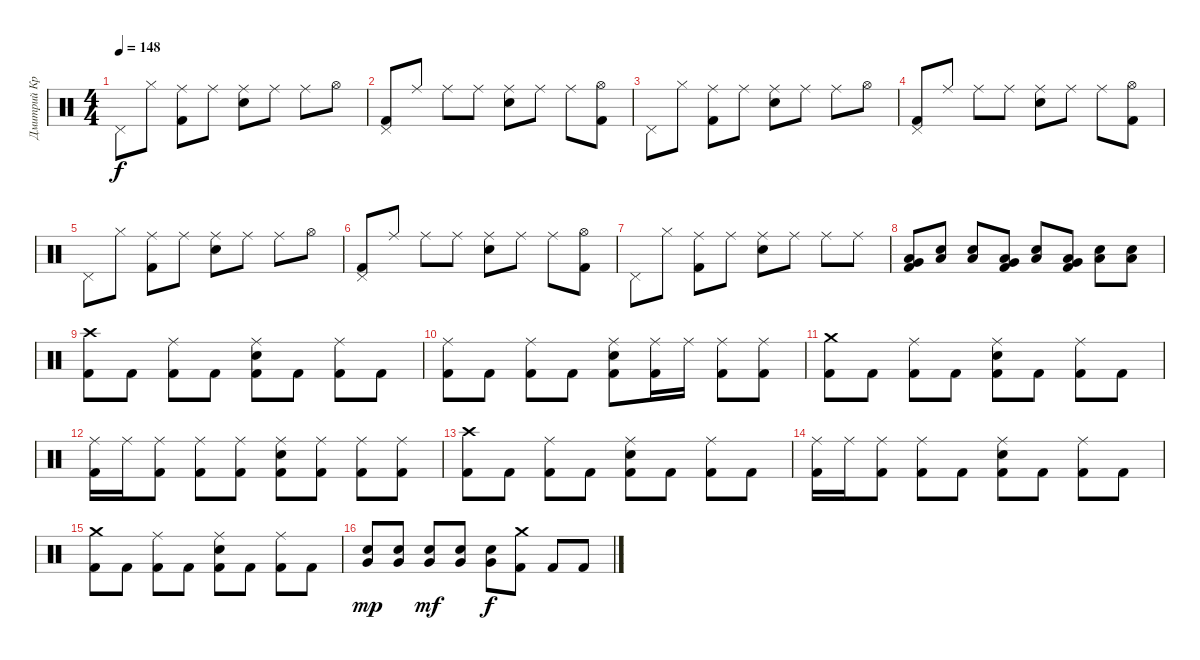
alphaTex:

\track ("Дмитрий Кривенков" "Дмитрий Кр") {instrument percussion}
\staff {score}
\articulation defaults
\ts (4 4)
\tempo 148
\clef neutral
\ks c "Pedal Hi-Hat (hit)".8{dy f} "Hi-Hat (closed)".8
("Ride (middle)" "Kick (hit) 2").8 "Ride (middle)".8 ("Ride (middle)" "Electric Snare (hit)").8 "Ride (middle)".8 "Ride (middle)".8 "Hi-Hat (open)".8 |
("Pedal Hi-Hat (hit)" "Kick (hit) 2").8 "Ride (middle)".8 "Ride (middle)".8 "Ride (middle)".8 ("Ride (middle)" "Electric Snare (hit)").8 "Ride (middle)".8 "Ride (middle)".8 ("Hi-Hat (open)" "Kick (hit) 2").8 |
"Pedal Hi-Hat (hit)".8 "Hi-Hat (closed)".8 ("Ride (middle)" "Kick (hit) 2").8 "Ride (middle)".8 ("Ride (middle)" "Electric Snare (hit)").8 "Ride (middle)".8 "Ride (middle)".8 "Hi-Hat (open)".8 |
("Pedal Hi-Hat (hit)" "Kick (hit) 2").8 "Ride (middle)".8 "Ride (middle)".8 "Ride (middle)".8 ("Ride (middle)" "Electric Snare (hit)").8 "Ride (middle)".8 "Ride (middle)".8 ("Hi-Hat (open)" "Kick (hit) 2").8 |
"Pedal Hi-Hat (hit)".8 "Hi-Hat (closed)".8 ("Ride (middle)" "Kick (hit) 2").8 "Ride (middle)".8 ("Ride (middle)" "Electric Snare (hit)").8 "Ride (middle)".8 "Ride (middle)".8 "Hi-Hat (open)".8 |
("Pedal Hi-Hat (hit)" "Kick (hit) 2").8 "Ride (middle)".8 "Ride (middle)".8 "Ride (middle)".8 ("Ride (middle)" "Electric Snare (hit)").8 "Ride (middle)".8 "Ride (middle)".8 ("Hi-Hat (open)" "Kick (hit) 2").8 |
"Pedal Hi-Hat (hit)".8 "Hi-Hat (closed)".8 ("Ride (middle)" "Kick (hit) 2").8 "Ride (middle)".8 ("Ride (middle)" "Electric Snare (hit)").8 "Ride (middle)".8 "Ride (middle)".8 "Ride (middle)".8 |
("Low Floor Tom (hit)" "Very Low Tom (hit)" "Kick (hit) 2").8 ("Low Floor Tom (hit)" "Electric Snare (hit)").8 ("Low Floor Tom (hit)" "Electric Snare (hit)").8 ("Low Floor Tom (hit)" "Very Low Tom (hit)" "Kick (hit) 2").8 ("Low Floor Tom (hit)" "Electric Snare (hit)").8 ("Low Floor Tom (hit)" "Very Low Tom (hit)" "Kick (hit) 2").8 ("Low Floor Tom (hit)" "Electric Snare (hit)").8 ("Low Floor Tom (hit)" "Electric Snare (hit)").8 |
("Crash high (hit)" "Kick (hit) 2").8 "Kick (hit) 2".8 ("Ride (middle)" "Kick (hit) 2").8 "Kick (hit) 2".8 ("Ride (middle)" "Electric Snare (hit)" "Kick (hit) 2").8 "Kick (hit) 2".8 ("Ride (middle)" "Kick (hit) 2").8 "Kick (hit) 2".8 |
("Ride (middle)" "Kick (hit) 2").8 "Kick (hit) 2".8 ("Ride (middle)" "Kick (hit) 2").8 "Kick (hit) 2".8 ("Ride (middle)" "Electric Snare (hit)" "Kick (hit) 2").8 ("Ride (middle)" "Kick (hit) 2").16 "Ride (middle)".16 ("Ride (middle)" "Kick (hit) 2").8 ("Ride (middle)" "Kick (hit) 2").8 |
("Crash medium (hit)" "Kick (hit) 2").8 "Kick (hit) 2".8 ("Ride (middle)" "Kick (hit) 2").8 "Kick (hit) 2".8 ("Ride (middle)" "Electric Snare (hit)" "Kick (hit) 2").8 "Kick (hit) 2".8 ("Ride (middle)" "Kick (hit) 2").8 "Kick (hit) 2".8 |
("Ride (middle)" "Kick (hit) 2").16 "Ride (middle)".16 ("Ride (middle)" "Kick (hit) 2").8 ("Ride (middle)" "Kick (hit) 2").8 ("Ride (middle)" "Kick (hit) 2").8 ("Ride (middle)" "Electric Snare (hit)" "Kick (hit) 2").8 ("Ride (middle)" "Kick (hit) 2").8 ("Ride (middle)" "Kick (hit) 2").8 ("Ride (middle)" "Kick (hit) 2").8 |
("Crash high (hit)" "Kick (hit) 2").8 "Kick (hit) 2".8 ("Ride (middle)" "Kick (hit) 2").8 "Kick (hit) 2".8 ("Ride (middle)" "Electric Snare (hit)" "Kick (hit) 2").8 "Kick (hit) 2".8 ("Ride (middle)" "Kick (hit) 2").8 "Kick (hit) 2".8 |
("Ride (middle)" "Kick (hit) 2").16 "Ride (middle)".16 ("Ride (middle)" "Kick (hit) 2").8 ("Ride (middle)" "Kick (hit) 2").8 "Kick (hit) 2".8 ("Ride (middle)" "Electric Snare (hit)" "Kick (hit) 2").8 "Kick (hit) 2".8 ("Ride (middle)" "Kick (hit) 2").8 "Kick (hit) 2".8 |
("Crash medium (hit)" "Kick (hit) 2").8 "Kick (hit) 2".8 ("Ride (middle)" "Kick (hit) 2").8 "Kick (hit) 2".8 ("Ride (middle)" "Electric Snare (hit)" "Kick (hit) 2").8 "Kick (hit) 2".8 ("Ride (middle)" "Kick (hit) 2").8 "Kick (hit) 2".8 |
("Electric Snare (hit)" "Very Low Tom (hit)").8{dy mp} ("Electric Snare (hit)" "Very Low Tom (hit)").8 ("Electric Snare (hit)" "Very Low Tom (hit)").8{dy mf} ("Electric Snare (hit)" "Very Low Tom (hit)").8 ("Electric Snare (hit)" "Very Low Tom (hit)").8{dy f} ("Crash medium (hit)" "Kick (hit) 2").8 "Kick (hit) 2".8 "Kick (hit) 2".8
